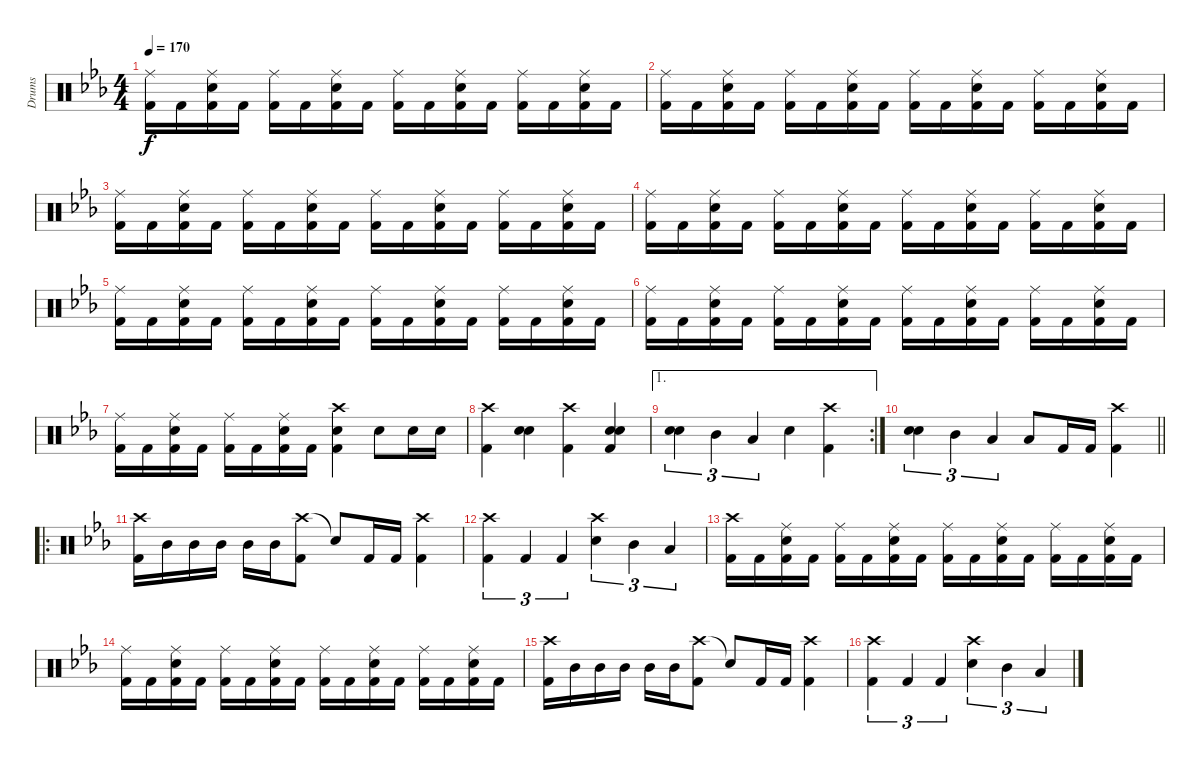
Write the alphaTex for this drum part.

\track ("Drums" "Drums") {instrument percussion}
\staff {score}
\articulation defaults
\ts (4 4)
\tempo 170
\clef neutral
\ks eb
("Ride (middle)" "Kick (hit) 2").16{dy f} "Kick (hit) 2".16 ("Ride (middle)" "Snare (hit) 2" "Kick (hit) 2").16 "Kick (hit) 2".16 ("Ride (middle)" "Kick (hit) 2").16 "Kick (hit) 2".16 ("Ride (middle)" "Snare (hit) 2" "Kick (hit) 2").16 "Kick (hit) 2".16 ("Ride (middle)" "Kick (hit) 2").16 "Kick (hit) 2".16 ("Ride (middle)" "Snare (hit) 2" "Kick (hit) 2").16 "Kick (hit) 2".16 ("Ride (middle)" "Kick (hit) 2").16 "Kick (hit) 2".16 ("Ride (middle)" "Snare (hit) 2" "Kick (hit) 2").16 "Kick (hit) 2".16 |
("Ride (middle)" "Kick (hit) 2").16 "Kick (hit) 2".16 ("Ride (middle)" "Snare (hit) 2" "Kick (hit) 2").16 "Kick (hit) 2".16 ("Ride (middle)" "Kick (hit) 2").16 "Kick (hit) 2".16 ("Ride (middle)" "Snare (hit) 2" "Kick (hit) 2").16 "Kick (hit) 2".16 ("Ride (middle)" "Kick (hit) 2").16 "Kick (hit) 2".16 ("Ride (middle)" "Snare (hit) 2" "Kick (hit) 2").16 "Kick (hit) 2".16 ("Ride (middle)" "Kick (hit) 2").16 "Kick (hit) 2".16 ("Ride (middle)" "Snare (hit) 2" "Kick (hit) 2").16 "Kick (hit) 2".16 |
("Ride (middle)" "Kick (hit) 2").16 "Kick (hit) 2".16 ("Ride (middle)" "Snare (hit) 2" "Kick (hit) 2").16 "Kick (hit) 2".16 ("Ride (middle)" "Kick (hit) 2").16 "Kick (hit) 2".16 ("Ride (middle)" "Snare (hit) 2" "Kick (hit) 2").16 "Kick (hit) 2".16 ("Ride (middle)" "Kick (hit) 2").16 "Kick (hit) 2".16 ("Ride (middle)" "Snare (hit) 2" "Kick (hit) 2").16 "Kick (hit) 2".16 ("Ride (middle)" "Kick (hit) 2").16 "Kick (hit) 2".16 ("Ride (middle)" "Snare (hit) 2" "Kick (hit) 2").16 "Kick (hit) 2".16 |
("Ride (middle)" "Kick (hit) 2").16 "Kick (hit) 2".16 ("Ride (middle)" "Snare (hit) 2" "Kick (hit) 2").16 "Kick (hit) 2".16 ("Ride (middle)" "Kick (hit) 2").16 "Kick (hit) 2".16 ("Ride (middle)" "Snare (hit) 2" "Kick (hit) 2").16 "Kick (hit) 2".16 ("Ride (middle)" "Kick (hit) 2").16 "Kick (hit) 2".16 ("Ride (middle)" "Snare (hit) 2" "Kick (hit) 2").16 "Kick (hit) 2".16 ("Ride (middle)" "Kick (hit) 2").16 "Kick (hit) 2".16 ("Ride (middle)" "Snare (hit) 2" "Kick (hit) 2").16 "Kick (hit) 2".16 |
("Ride (middle)" "Kick (hit) 2").16 "Kick (hit) 2".16 ("Ride (middle)" "Snare (hit) 2" "Kick (hit) 2").16 "Kick (hit) 2".16 ("Ride (middle)" "Kick (hit) 2").16 "Kick (hit) 2".16 ("Ride (middle)" "Snare (hit) 2" "Kick (hit) 2").16 "Kick (hit) 2".16 ("Ride (middle)" "Kick (hit) 2").16 "Kick (hit) 2".16 ("Ride (middle)" "Snare (hit) 2" "Kick (hit) 2").16 "Kick (hit) 2".16 ("Ride (middle)" "Kick (hit) 2").16 "Kick (hit) 2".16 ("Ride (middle)" "Snare (hit) 2" "Kick (hit) 2").16 "Kick (hit) 2".16 |
("Ride (middle)" "Kick (hit) 2").16 "Kick (hit) 2".16 ("Ride (middle)" "Snare (hit) 2" "Kick (hit) 2").16 "Kick (hit) 2".16 ("Ride (middle)" "Kick (hit) 2").16 "Kick (hit) 2".16 ("Ride (middle)" "Snare (hit) 2" "Kick (hit) 2").16 "Kick (hit) 2".16 ("Ride (middle)" "Kick (hit) 2").16 "Kick (hit) 2".16 ("Ride (middle)" "Snare (hit) 2" "Kick (hit) 2").16 "Kick (hit) 2".16 ("Ride (middle)" "Kick (hit) 2").16 "Kick (hit) 2".16 ("Ride (middle)" "Snare (hit) 2" "Kick (hit) 2").16 "Kick (hit) 2".16 |
("Ride (middle)" "Kick (hit) 2").16 "Kick (hit) 2".16 ("Ride (middle)" "Snare (hit) 2" "Kick (hit) 2").16 "Kick (hit) 2".16 ("Ride (middle)" "Kick (hit) 2").16 "Kick (hit) 2".16 ("Ride (middle)" "Snare (hit) 2" "Kick (hit) 2").16 "Kick (hit) 2".16 ("Crash high (hit)" "Snare (hit) 2" "Kick (hit) 2").4 "Snare (hit) 2".8 "Snare (hit) 2".16 "Snare (hit) 2".16 |
("Crash high (hit)" "Kick (hit) 2").4 ("Snare (hit) 2" "Snare (hit) 2").4 ("Crash high (hit)" "Kick (hit) 2").4 ("Snare (hit) 2" "Snare (hit) 2" "Kick (hit) 2").4 |
\ae 1
\rc 2
("Snare (hit) 2" "Snare (hit) 2").4{tu (3 2)} "Mid Tom (hit)".4{tu (3 2)} "Low Tom (hit)".4{tu (3 2)} "Snare (hit) 2".4 ("Crash high (hit)" "Kick (hit) 2").4 |
\barLineRight lightlight
("Snare (hit) 2" "Snare (hit) 2").4{tu (3 2)} "Mid Tom (hit)".4{tu (3 2)} "Low Tom (hit)".4{tu (3 2)} "Low Floor Tom (hit)".8 "Kick (hit) 2".16 "Kick (hit) 2".16 ("Crash high (hit)" "Kick (hit) 2").4 |
\ro
("Crash high (hit)" "Kick (hit) 2").16 "Mid Tom (hit)".16 "Mid Tom (hit)".16 "Mid Tom (hit)".16 "Mid Tom (hit)".16 "Mid Tom (hit)".16 ("Crash high (hit)" "Kick (hit) 2").8 "Snare (hit)"{t}.8 "Kick (hit) 2".16 "Kick (hit) 2".16 ("Crash high (hit)" "Kick (hit) 2").4 |
("Crash high (hit)" "Kick (hit) 2").4{tu (3 2)} "Kick (hit) 2".4{tu (3 2)} "Kick (hit) 2".4{tu (3 2)} ("Crash high (hit)" "Snare (hit) 2").4{tu (3 2)} "Mid Tom (hit)".4{tu (3 2)} "Low Tom (hit)".4{tu (3 2)} |
("Crash high (hit)" "Kick (hit) 2").16 "Kick (hit) 2".16 ("Ride (middle)" "Snare (hit) 2" "Kick (hit) 2").16 "Kick (hit) 2".16 ("Ride (middle)" "Kick (hit) 2").16 "Kick (hit) 2".16 ("Ride (middle)" "Snare (hit) 2" "Kick (hit) 2").16 "Kick (hit) 2".16 ("Ride (middle)" "Kick (hit) 2").16 "Kick (hit) 2".16 ("Ride (middle)" "Snare (hit) 2" "Kick (hit) 2").16 "Kick (hit) 2".16 ("Ride (middle)" "Kick (hit) 2").16 "Kick (hit) 2".16 ("Ride (middle)" "Snare (hit) 2" "Kick (hit) 2").16 "Kick (hit) 2".16 |
("Ride (middle)" "Kick (hit) 2").16 "Kick (hit) 2".16 ("Ride (middle)" "Snare (hit) 2" "Kick (hit) 2").16 "Kick (hit) 2".16 ("Ride (middle)" "Kick (hit) 2").16 "Kick (hit) 2".16 ("Ride (middle)" "Snare (hit) 2" "Kick (hit) 2").16 "Kick (hit) 2".16 ("Ride (middle)" "Kick (hit) 2").16 "Kick (hit) 2".16 ("Ride (middle)" "Snare (hit) 2" "Kick (hit) 2").16 "Kick (hit) 2".16 ("Ride (middle)" "Kick (hit) 2").16 "Kick (hit) 2".16 ("Ride (middle)" "Snare (hit) 2" "Kick (hit) 2").16 "Kick (hit) 2".16 |
("Crash high (hit)" "Kick (hit) 2").16 "Mid Tom (hit)".16 "Mid Tom (hit)".16 "Mid Tom (hit)".16 "Mid Tom (hit)".16 "Mid Tom (hit)".16 ("Crash high (hit)" "Kick (hit) 2").8 "Snare (hit)"{t}.8 "Kick (hit) 2".16 "Kick (hit) 2".16 ("Crash high (hit)" "Kick (hit) 2").4 |
("Crash high (hit)" "Kick (hit) 2").4{tu (3 2)} "Kick (hit) 2".4{tu (3 2)} "Kick (hit) 2".4{tu (3 2)} ("Crash high (hit)" "Snare (hit) 2").4{tu (3 2)} "Mid Tom (hit)".4{tu (3 2)} "Low Tom (hit)".4{tu (3 2)}
